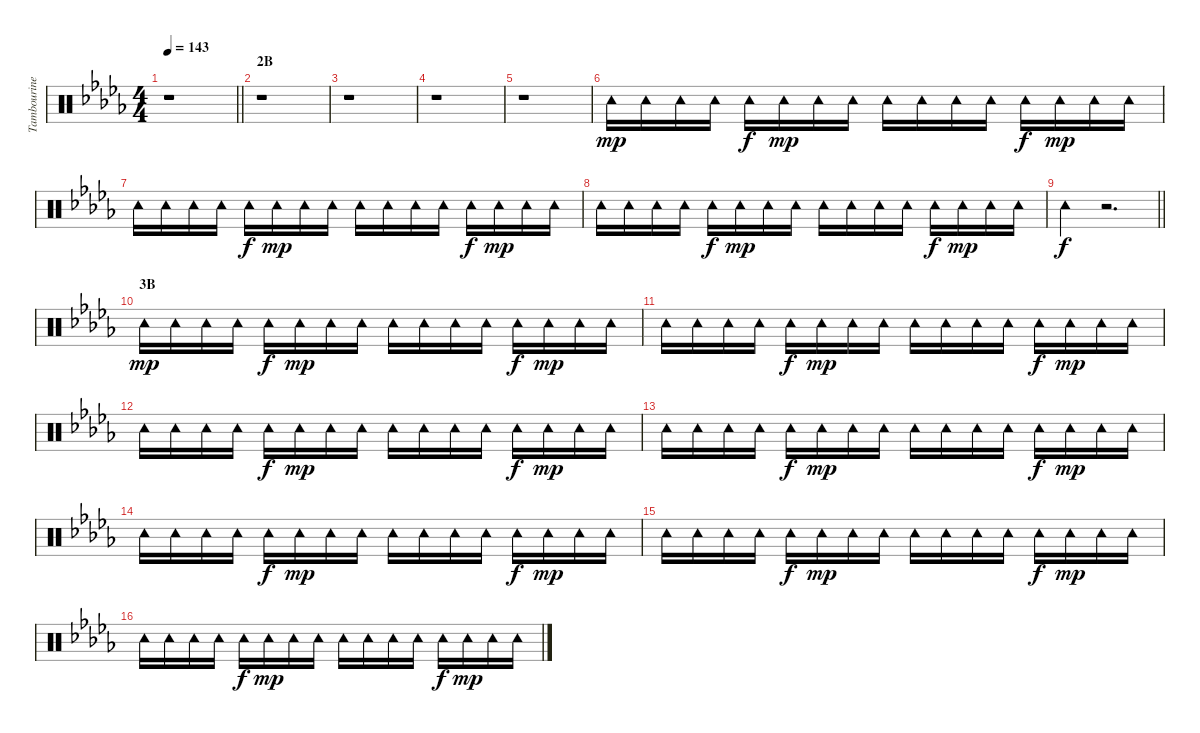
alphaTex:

\track ("Tambourine" "Tambourine") {instrument percussion}
\staff {score}
\articulation defaults
\ts (4 4)
\tempo 143
\clef neutral
\barLineRight lightlight
\ks db
r.1{dy f} |
\section ("" "2B")
r.1 |
r.1 |
r.1 |
r.1 |
"Tambourine (hit)".16{dy mp} "Tambourine (hit)".16 "Tambourine (hit)".16 "Tambourine (hit)".16 "Tambourine (hit)".16{dy f} "Tambourine (hit)".16{dy mp} "Tambourine (hit)".16 "Tambourine (hit)".16 "Tambourine (hit)".16 "Tambourine (hit)".16 "Tambourine (hit)".16 "Tambourine (hit)".16 "Tambourine (hit)".16{dy f} "Tambourine (hit)".16{dy mp} "Tambourine (hit)".16 "Tambourine (hit)".16 |
"Tambourine (hit)".16 "Tambourine (hit)".16 "Tambourine (hit)".16 "Tambourine (hit)".16 "Tambourine (hit)".16{dy f} "Tambourine (hit)".16{dy mp} "Tambourine (hit)".16 "Tambourine (hit)".16 "Tambourine (hit)".16 "Tambourine (hit)".16 "Tambourine (hit)".16 "Tambourine (hit)".16 "Tambourine (hit)".16{dy f} "Tambourine (hit)".16{dy mp} "Tambourine (hit)".16 "Tambourine (hit)".16 |
"Tambourine (hit)".16 "Tambourine (hit)".16 "Tambourine (hit)".16 "Tambourine (hit)".16 "Tambourine (hit)".16{dy f} "Tambourine (hit)".16{dy mp} "Tambourine (hit)".16 "Tambourine (hit)".16 "Tambourine (hit)".16 "Tambourine (hit)".16 "Tambourine (hit)".16 "Tambourine (hit)".16 "Tambourine (hit)".16{dy f} "Tambourine (hit)".16{dy mp} "Tambourine (hit)".16 "Tambourine (hit)".16 |
\barLineRight lightlight "Tambourine (hit)".4{dy f}
r.2{d} |
\section ("" "3B")
"Tambourine (hit)".16{dy mp} "Tambourine (hit)".16 "Tambourine (hit)".16 "Tambourine (hit)".16 "Tambourine (hit)".16{dy f} "Tambourine (hit)".16{dy mp} "Tambourine (hit)".16 "Tambourine (hit)".16 "Tambourine (hit)".16 "Tambourine (hit)".16 "Tambourine (hit)".16 "Tambourine (hit)".16 "Tambourine (hit)".16{dy f} "Tambourine (hit)".16{dy mp} "Tambourine (hit)".16 "Tambourine (hit)".16 |
"Tambourine (hit)".16 "Tambourine (hit)".16 "Tambourine (hit)".16 "Tambourine (hit)".16 "Tambourine (hit)".16{dy f} "Tambourine (hit)".16{dy mp} "Tambourine (hit)".16 "Tambourine (hit)".16 "Tambourine (hit)".16 "Tambourine (hit)".16 "Tambourine (hit)".16 "Tambourine (hit)".16 "Tambourine (hit)".16{dy f} "Tambourine (hit)".16{dy mp} "Tambourine (hit)".16 "Tambourine (hit)".16 |
"Tambourine (hit)".16 "Tambourine (hit)".16 "Tambourine (hit)".16 "Tambourine (hit)".16 "Tambourine (hit)".16{dy f} "Tambourine (hit)".16{dy mp} "Tambourine (hit)".16 "Tambourine (hit)".16 "Tambourine (hit)".16 "Tambourine (hit)".16 "Tambourine (hit)".16 "Tambourine (hit)".16 "Tambourine (hit)".16{dy f} "Tambourine (hit)".16{dy mp} "Tambourine (hit)".16 "Tambourine (hit)".16 |
"Tambourine (hit)".16 "Tambourine (hit)".16 "Tambourine (hit)".16 "Tambourine (hit)".16 "Tambourine (hit)".16{dy f} "Tambourine (hit)".16{dy mp} "Tambourine (hit)".16 "Tambourine (hit)".16 "Tambourine (hit)".16 "Tambourine (hit)".16 "Tambourine (hit)".16 "Tambourine (hit)".16 "Tambourine (hit)".16{dy f} "Tambourine (hit)".16{dy mp} "Tambourine (hit)".16 "Tambourine (hit)".16 |
"Tambourine (hit)".16 "Tambourine (hit)".16 "Tambourine (hit)".16 "Tambourine (hit)".16 "Tambourine (hit)".16{dy f} "Tambourine (hit)".16{dy mp} "Tambourine (hit)".16 "Tambourine (hit)".16 "Tambourine (hit)".16 "Tambourine (hit)".16 "Tambourine (hit)".16 "Tambourine (hit)".16 "Tambourine (hit)".16{dy f} "Tambourine (hit)".16{dy mp} "Tambourine (hit)".16 "Tambourine (hit)".16 |
"Tambourine (hit)".16 "Tambourine (hit)".16 "Tambourine (hit)".16 "Tambourine (hit)".16 "Tambourine (hit)".16{dy f} "Tambourine (hit)".16{dy mp} "Tambourine (hit)".16 "Tambourine (hit)".16 "Tambourine (hit)".16 "Tambourine (hit)".16 "Tambourine (hit)".16 "Tambourine (hit)".16 "Tambourine (hit)".16{dy f} "Tambourine (hit)".16{dy mp} "Tambourine (hit)".16 "Tambourine (hit)".16 |
"Tambourine (hit)".16 "Tambourine (hit)".16 "Tambourine (hit)".16 "Tambourine (hit)".16 "Tambourine (hit)".16{dy f} "Tambourine (hit)".16{dy mp} "Tambourine (hit)".16 "Tambourine (hit)".16 "Tambourine (hit)".16 "Tambourine (hit)".16 "Tambourine (hit)".16 "Tambourine (hit)".16 "Tambourine (hit)".16{dy f} "Tambourine (hit)".16{dy mp} "Tambourine (hit)".16 "Tambourine (hit)".16
